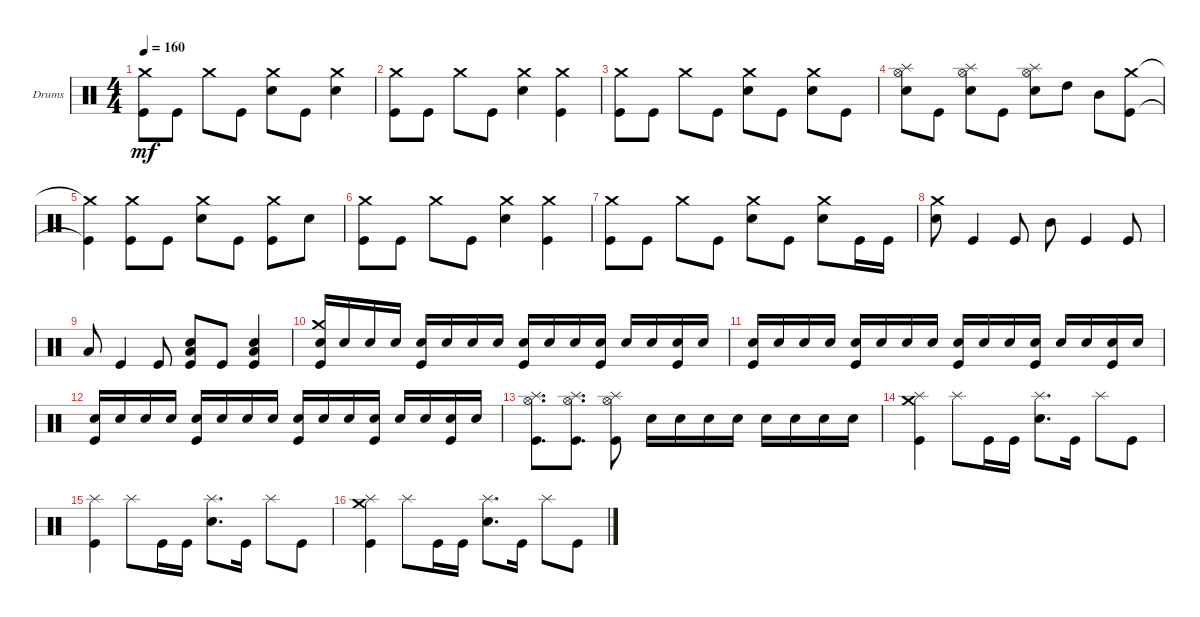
\bracketExtendMode groupsimilarinstruments
\firstSystemTrackNameOrientation horizontal
\otherSystemsTrackNameOrientation horizontal
\track ("Drums" "Drums") {instrument percussion}
\staff {score}
\articulation defaults
\ts (4 4)
\tempo 160
\clef neutral
\ks c
("Kick (hit)" "Crash medium (hit)").8{dy mf} "Kick (hit)".8 "Crash medium (hit)".8 "Kick (hit)".8 ("Snare (hit) 2" "Crash medium (hit)").8 "Kick (hit)".8 ("Snare (hit) 2" "Crash medium (hit)").4 |
("Kick (hit)" "Crash medium (hit)").8 "Kick (hit)".8 "Crash medium (hit)".8 "Kick (hit)".8 ("Snare (hit) 2" "Crash medium (hit)").4 ("Kick (hit)" "Crash medium (hit)").4 |
("Kick (hit)" "Crash medium (hit)").8 "Kick (hit)".8 "Crash medium (hit)".8 "Kick (hit)".8 ("Snare (hit) 2" "Crash medium (hit)").8 "Kick (hit)".8 ("Snare (hit) 2" "Crash medium (hit)").8 "Kick (hit)".8 |
("Snare (hit) 2" "Hi-Hat (open)" "Splash (hit)").8 "Kick (hit)".8 ("Snare (hit) 2" "Hi-Hat (open)" "Splash (hit)").8 "Kick (hit)".8 ("Snare (hit) 2" "Hi-Hat (open)" "Splash (hit)").8 "High Tom (hit)".8 "Mid Tom (hit)".8 ("Kick (hit)" "Crash medium (hit)").8 |
("Kick (hit)"{t} "Crash medium (hit)"{t}).4 ("Kick (hit)" "Crash medium (hit)").8 "Kick (hit)".8 ("Snare (hit) 2" "Crash medium (hit)").8 "Kick (hit)".8 ("Kick (hit)" "Crash medium (hit)").8 "Snare (hit) 2".8 |
("Kick (hit)" "Crash medium (hit)").8 "Kick (hit)".8 "Crash medium (hit)".8 "Kick (hit)".8 ("Snare (hit) 2" "Crash medium (hit)").4 ("Kick (hit)" "Crash medium (hit)").4 |
("Kick (hit)" "Crash medium (hit)").8 "Kick (hit)".8 "Crash medium (hit)".8 "Kick (hit)".8 ("Snare (hit) 2" "Crash medium (hit)").8 "Kick (hit)".8 ("Snare (hit) 2" "Crash medium (hit)").8 "Kick (hit)".16 "Kick (hit)".16 |
("Snare (hit) 2" "Crash medium (hit)").8 "Kick (hit)".4 "Kick (hit)".8 "Mid Tom (hit)".8 "Kick (hit)".4 "Kick (hit)".8 |
"Low Tom (hit)".8 "Kick (hit)".4 "Kick (hit)".8 ("Kick (hit)" "Snare (hit) 2" "Low Tom (hit)").8 "Kick (hit)".8 ("Kick (hit)" "Snare (hit) 2" "Low Tom (hit)").4 |
("Kick (hit)" "Snare (hit) 2" "Crash medium (hit)").16 "Snare (hit) 2".16 "Snare (hit) 2".16 "Snare (hit) 2".16 ("Kick (hit)" "Snare (hit) 2").16 "Snare (hit) 2".16 "Snare (hit) 2".16 "Snare (hit) 2".16 ("Kick (hit)" "Snare (hit) 2").16 "Snare (hit) 2".16 "Snare (hit) 2".16 ("Kick (hit)" "Snare (hit) 2").16 "Snare (hit) 2".16 "Snare (hit) 2".16 ("Kick (hit)" "Snare (hit) 2").16 "Snare (hit) 2".16 |
("Kick (hit)" "Snare (hit) 2").16 "Snare (hit) 2".16 "Snare (hit) 2".16 "Snare (hit) 2".16 ("Kick (hit)" "Snare (hit) 2").16 "Snare (hit) 2".16 "Snare (hit) 2".16 "Snare (hit) 2".16 ("Kick (hit)" "Snare (hit) 2").16 "Snare (hit) 2".16 "Snare (hit) 2".16 ("Kick (hit)" "Snare (hit) 2").16 "Snare (hit) 2".16 "Snare (hit) 2".16 ("Kick (hit)" "Snare (hit) 2").16 "Snare (hit) 2".16 |
("Kick (hit)" "Snare (hit) 2").16 "Snare (hit) 2".16 "Snare (hit) 2".16 "Snare (hit) 2".16 ("Kick (hit)" "Snare (hit) 2").16 "Snare (hit) 2".16 "Snare (hit) 2".16 "Snare (hit) 2".16 ("Kick (hit)" "Snare (hit) 2").16 "Snare (hit) 2".16 "Snare (hit) 2".16 ("Kick (hit)" "Snare (hit) 2").16 "Snare (hit) 2".16 "Snare (hit) 2".16 ("Kick (hit)" "Snare (hit) 2").16 "Snare (hit) 2".16 |
("Kick (hit)" "Hi-Hat (open)" "Splash (hit)").8{d} ("Kick (hit)" "Hi-Hat (open)" "Splash (hit)").8{d} ("Kick (hit)" "Hi-Hat (open)" "Splash (hit)").8 "Snare (hit) 2".16 "Snare (hit) 2".16 "Snare (hit) 2".16 "Snare (hit) 2".16 "Snare (hit) 2".16 "Snare (hit) 2".16 "Snare (hit) 2".16 "Snare (hit) 2".16 |
("Kick (hit)" "Splash (hit)" "Crash medium (hit)").4 "Splash (hit)".8 "Kick (hit)".16 "Kick (hit)".16 ("Snare (hit) 2" "Splash (hit)").8{d} "Kick (hit)".16 "Splash (hit)".8 "Kick (hit)".8 |
("Kick (hit)" "Splash (hit)").4 "Splash (hit)".8 "Kick (hit)".16 "Kick (hit)".16 ("Snare (hit) 2" "Splash (hit)").8{d} "Kick (hit)".16 "Splash (hit)".8 "Kick (hit)".8 |
("Kick (hit)" "Splash (hit)" "Crash medium (hit)").4 "Splash (hit)".8 "Kick (hit)".16 "Kick (hit)".16 ("Snare (hit) 2" "Splash (hit)").8{d} "Kick (hit)".16 "Splash (hit)".8 "Kick (hit)".8
